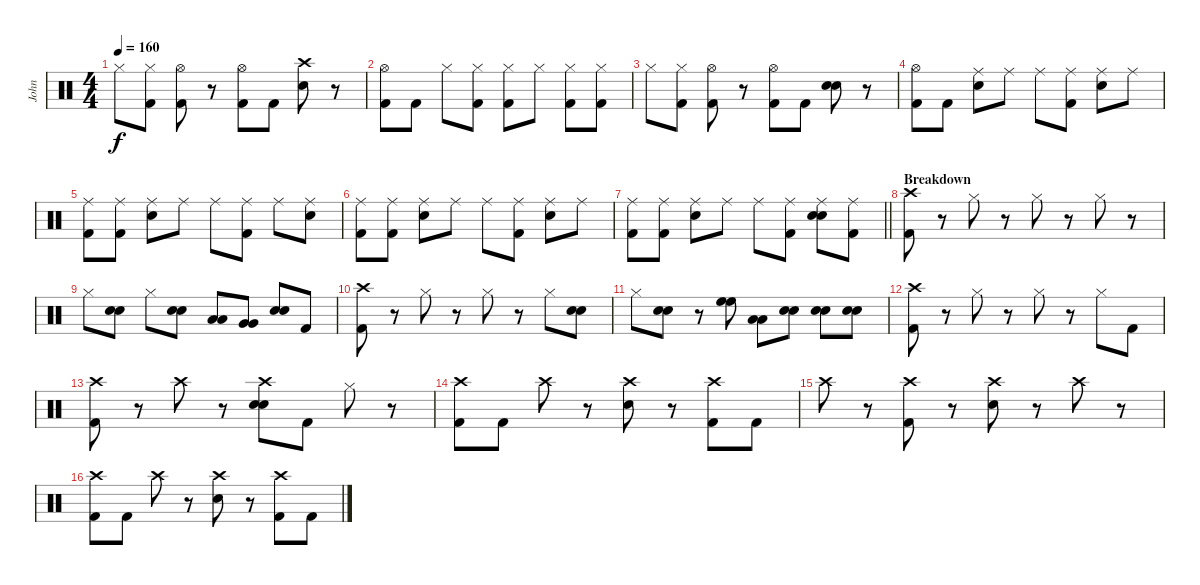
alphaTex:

\track ("John" "John") {instrument percussion}
\staff {score}
\articulation defaults
\ts (4 4)
\tempo 160
\clef neutral
\ks c "Hi-Hat (closed)".8{dy f}
("Hi-Hat (closed)" "Kick (hit) 2").8 ("Hi-Hat (open)" "Kick (hit) 2").8 r.8 ("Hi-Hat (open)" "Kick (hit) 2").8 "Kick (hit) 2".8 ("Crash high (hit)" "Snare (hit) 2").8 r.8 |
("Hi-Hat (open)" "Kick (hit) 2").8 "Kick (hit) 2".8 "Hi-Hat (closed)".8 ("Hi-Hat (closed)" "Kick (hit) 2").8 ("Hi-Hat (closed)" "Kick (hit) 2").8 "Hi-Hat (closed)".8 ("Hi-Hat (closed)" "Kick (hit) 2").8 ("Hi-Hat (closed)" "Kick (hit) 2").8 |
"Hi-Hat (closed)".8 ("Hi-Hat (closed)" "Kick (hit) 2").8 ("Hi-Hat (open)" "Kick (hit) 2").8 r.8 ("Hi-Hat (open)" "Kick (hit) 2").8 "Kick (hit) 2".8 ("Snare (hit) 2" "Snare (hit) 2").8 r.8 |
("Hi-Hat (open)" "Kick (hit) 2").8 "Kick (hit) 2".8 ("Ride (middle)" "Snare (hit) 2").8 "Ride (middle)".8 "Ride (middle)".8 ("Ride (middle)" "Kick (hit) 2").8 ("Ride (middle)" "Snare (hit) 2").8 "Ride (middle)".8 |
("Ride (middle)" "Kick (hit) 2").8 ("Ride (middle)" "Kick (hit) 2").8 ("Ride (middle)" "Snare (hit) 2").8 "Ride (middle)".8 "Ride (middle)".8 ("Ride (middle)" "Kick (hit) 2").8 "Ride (middle)".8 ("Ride (middle)" "Snare (hit) 2").8 |
("Ride (middle)" "Kick (hit) 2").8 ("Ride (middle)" "Kick (hit) 2").8 ("Ride (middle)" "Snare (hit) 2").8 "Ride (middle)".8 "Ride (middle)".8 ("Ride (middle)" "Kick (hit) 2").8 ("Ride (middle)" "Snare (hit) 2").8 "Ride (middle)".8 |
\barLineRight lightlight
("Ride (middle)" "Kick (hit) 2").8 ("Ride (middle)" "Kick (hit) 2").8 ("Ride (middle)" "Snare (hit) 2").8 "Ride (middle)".8 "Ride (middle)".8 ("Ride (middle)" "Kick (hit) 2").8 ("Ride (middle)" "Snare (hit) 2" "Snare (hit) 2").8 ("Ride (middle)" "Kick (hit) 2").8 |
\section ("" "Breakdown")
("Crash high (hit)" "Kick (hit) 2").8 r.8 "Hi-Hat (closed)".8 r.8 "Hi-Hat (closed)".8 r.8 "Hi-Hat (closed)".8 r.8 |
"Hi-Hat (closed)".8 ("Snare (hit) 2" "Snare (hit) 2").8 "Hi-Hat (closed)".8 ("Snare (hit) 2" "Snare (hit) 2").8 ("Low Tom (hit)" "Low Tom (hit)").8 ("Very Low Tom (hit)" "Very Low Tom (hit)").8 ("Snare (hit) 2" "Snare (hit) 2").8 "Kick (hit) 2".8 |
("Crash high (hit)" "Kick (hit) 2").8 r.8 "Hi-Hat (closed)".8 r.8 "Hi-Hat (closed)".8 r.8 "Hi-Hat (closed)".8 ("Snare (hit) 2" "Snare (hit) 2").8 |
"Hi-Hat (closed)".8 ("Snare (hit) 2" "Snare (hit) 2").8 r.8 ("High Floor Tom (hit)" "High Floor Tom (hit)").8 ("Low Tom (hit)" "Low Tom (hit)").8 ("Snare (hit) 2" "Snare (hit) 2").8 ("Snare (hit) 2" "Snare (hit) 2").8 ("Snare (hit) 2" "Snare (hit) 2").8 |
("Crash high (hit)" "Kick (hit) 2").8 r.8 "Hi-Hat (closed)".8 r.8 "Hi-Hat (closed)".8 r.8 "Hi-Hat (closed)".8 "Kick (hit) 2".8 |
("Crash high (hit)" "Kick (hit) 2").8 r.8 "Crash high (hit)".8 r.8 ("Crash high (hit)" "Snare (hit) 2" "Snare (hit) 2").8 "Kick (hit) 2".8 "Hi-Hat (closed)".8 r.8 |
("Crash high (hit)" "Kick (hit) 2").8 "Kick (hit) 2".8 "Crash high (hit)".8 r.8 ("Crash high (hit)" "Snare (hit) 2").8 r.8 ("Crash high (hit)" "Kick (hit) 2").8 "Kick (hit) 2".8 |
"Crash high (hit)".8 r.8 ("Crash high (hit)" "Kick (hit) 2").8 r.8 ("Crash high (hit)" "Snare (hit) 2").8 r.8 "Crash high (hit)".8 r.8 |
("Crash high (hit)" "Kick (hit) 2").8 "Kick (hit) 2".8 "Crash high (hit)".8 r.8 ("Crash high (hit)" "Snare (hit) 2").8 r.8 ("Crash high (hit)" "Kick (hit) 2").8 "Kick (hit) 2".8
